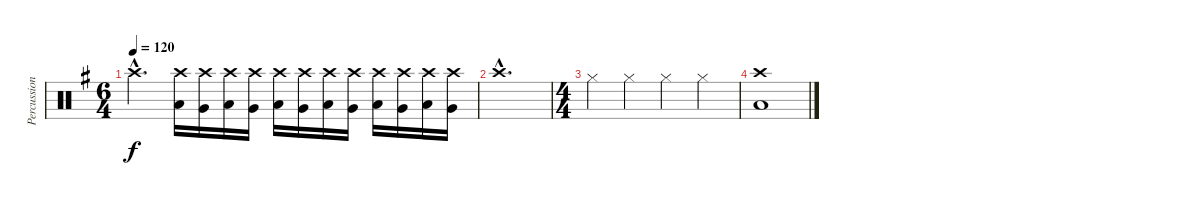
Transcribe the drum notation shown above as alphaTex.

\track ("Percussions" "Percussion") {instrument percussion}
\staff {score}
\articulation defaults
\ts (6 4)
\tempo 120
\clef neutral
\ks eminor "Crash high (hit)"{hac}.2{d dy f}
("Crash high (hit)" "Low Tom (hit)").16 ("Crash high (hit)" "Very Low Tom (hit)").16 ("Crash high (hit)" "Low Tom (hit)").16 ("Crash high (hit)" "Very Low Tom (hit)").16 ("Crash high (hit)" "Low Tom (hit)").16 ("Crash high (hit)" "Very Low Tom (hit)").16 ("Crash high (hit)" "Low Tom (hit)").16 ("Crash high (hit)" "Very Low Tom (hit)").16 ("Crash high (hit)" "Low Tom (hit)").16 ("Crash high (hit)" "Very Low Tom (hit)").16 ("Crash high (hit)" "Low Tom (hit)").16 ("Crash high (hit)" "Very Low Tom (hit)").16 |
"Crash high (hit)"{hac}.1{d} |
\ts (4 4)
"Hi-Hat (closed)".4 "Hi-Hat (closed)".4 "Hi-Hat (closed)".4 "Hi-Hat (closed)".4 |
("Crash high (hit)" "Low Tom (hit)").1
